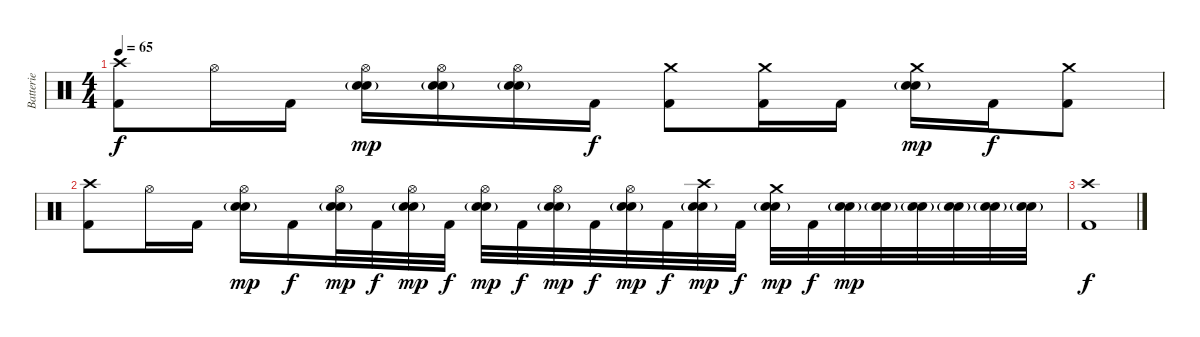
\track ("Batterie" "Batterie") {instrument percussion}
\staff {score}
\articulation defaults
\ts (4 4)
\tempo 65
\clef neutral
\ks c
("Crash high (hit)" "Kick (hit) 2").8{dy f} "Hi-Hat (open)".16 "Kick (hit) 2".16 ("Hi-Hat (open)" "Electric Snare (hit)" "Snare (hit) 2"{g}).16{dy mp} ("Hi-Hat (open)" "Electric Snare (hit)" "Snare (hit) 2"{g}).16 ("Hi-Hat (open)" "Electric Snare (hit)" "Snare (hit) 2"{g}).16 "Kick (hit) 2".16{dy f} ("Crash medium (hit)" "Kick (hit) 2").8 ("Crash medium (hit)" "Kick (hit) 2").16 "Kick (hit) 2".16 ("Crash medium (hit)" "Electric Snare (hit)" "Snare (hit) 2"{g}).16{dy mp} "Kick (hit) 2".16{dy f} ("Crash medium (hit)" "Kick (hit) 2").8 |
("Crash high (hit)" "Kick (hit) 2").8 "Hi-Hat (open)".16 "Kick (hit) 2".16 ("Hi-Hat (open)" "Electric Snare (hit)" "Snare (hit) 2"{g}).16{dy mp} "Kick (hit) 2".16{dy f} ("Hi-Hat (open)" "Electric Snare (hit)" "Snare (hit) 2"{g}).32{dy mp} "Kick (hit) 2".32{dy f} ("Hi-Hat (open)" "Electric Snare (hit)" "Snare (hit) 2"{g}).32{dy mp} "Kick (hit) 2".32{dy f} ("Hi-Hat (open)" "Electric Snare (hit)" "Snare (hit) 2"{g}).32{dy mp} "Kick (hit) 2".32{dy f} ("Hi-Hat (open)" "Electric Snare (hit)" "Snare (hit) 2"{g}).32{dy mp} "Kick (hit) 2".32{dy f} ("Hi-Hat (open)" "Electric Snare (hit)" "Snare (hit) 2"{g}).32{dy mp} "Kick (hit) 2".32{dy f} ("Crash high (hit)" "Electric Snare (hit)" "Snare (hit) 2"{g}).32{dy mp} "Kick (hit) 2".32{dy f} ("Crash medium (hit)" "Electric Snare (hit)" "Snare (hit) 2"{g}).32{dy mp} "Kick (hit) 2".32{dy f} ("Electric Snare (hit)" "Snare (hit) 2"{g}).32{dy mp} ("Electric Snare (hit)" "Snare (hit) 2"{g}).32 ("Electric Snare (hit)" "Snare (hit) 2"{g}).32 ("Electric Snare (hit)" "Snare (hit) 2"{g}).32 ("Electric Snare (hit)" "Snare (hit) 2"{g}).32 ("Electric Snare (hit)" "Snare (hit) 2"{g}).32 |
("Crash high (hit)" "Kick (hit) 2").1{dy f volume 0}
